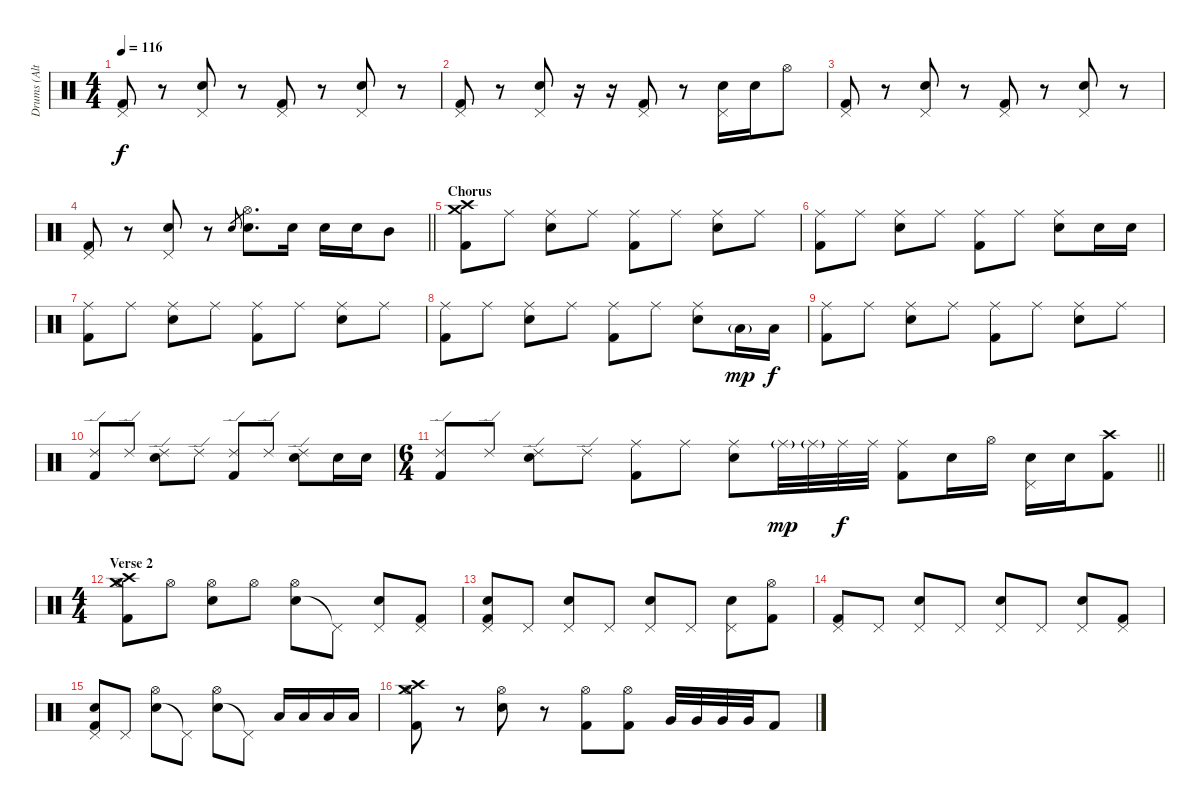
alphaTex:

\track ("Drums (Alternate - NOT ON MASTER)" "Drums (Alt") {mute instrument percussion}
\staff {score}
\articulation defaults
\ts (4 4)
\tempo 116
\clef neutral
\ks c
("Pedal Hi-Hat (hit)" "Kick (hit) 2").8{dy f} r.8 ("Snare (hit) 2" "Pedal Hi-Hat (hit)").8 r.8 ("Pedal Hi-Hat (hit)" "Kick (hit) 2").8 r.8 ("Snare (hit) 2" "Pedal Hi-Hat (hit)").8 r.8 |
("Pedal Hi-Hat (hit)" "Kick (hit) 2").8 r.8 ("Snare (hit) 2" "Pedal Hi-Hat (hit)").8 r.16 r.16 ("Pedal Hi-Hat (hit)" "Kick (hit) 2").8 r.8 ("Snare (hit) 2" "Pedal Hi-Hat (hit)").16 "Snare (hit) 2".16 "Hi-Hat (open)".8 |
("Pedal Hi-Hat (hit)" "Kick (hit) 2").8 r.8 ("Snare (hit) 2" "Pedal Hi-Hat (hit)").8 r.8 ("Pedal Hi-Hat (hit)" "Kick (hit) 2").8 r.8 ("Snare (hit) 2" "Pedal Hi-Hat (hit)").8 r.8 |
\barLineRight lightlight
("Pedal Hi-Hat (hit)" "Kick (hit) 2").8 r.8 ("Snare (hit) 2" "Pedal Hi-Hat (hit)").8 r.8 "Snare (hit) 2".8{gr} ("Snare (hit) 2" "Hi-Hat (open)").8{d} "Snare (hit) 2".16 "Snare (hit) 2".16 "Snare (hit) 2".16 "Mid Tom (hit)".8 |
\section ("" "Chorus")
("Crash medium (hit)" "Crash high (hit)" "Kick (hit) 2").8 "Ride (middle)".8 ("Ride (middle)" "Snare (hit) 2").8 "Ride (middle)".8 ("Ride (middle)" "Kick (hit) 2").8 "Ride (middle)".8 ("Ride (middle)" "Snare (hit) 2").8 "Ride (middle)".8 |
("Ride (middle)" "Kick (hit) 2").8 "Ride (middle)".8 ("Ride (middle)" "Snare (hit) 2").8 "Ride (middle)".8 ("Ride (middle)" "Kick (hit) 2").8 "Ride (middle)".8 ("Ride (middle)" "Snare (hit) 2").8 "Snare (hit) 2".16 "Snare (hit) 2".16 |
("Ride (middle)" "Kick (hit) 2").8 "Ride (middle)".8 ("Ride (middle)" "Snare (hit) 2").8 "Ride (middle)".8 ("Ride (middle)" "Kick (hit) 2").8 "Ride (middle)".8 ("Ride (middle)" "Snare (hit) 2").8 "Ride (middle)".8 |
("Ride (middle)" "Kick (hit) 2").8 "Ride (middle)".8 ("Ride (middle)" "Snare (hit) 2").8 "Ride (middle)".8 ("Ride (middle)" "Kick (hit) 2").8 "Ride (middle)".8 ("Ride (middle)" "Snare (hit) 2").8 "Low Floor Tom (hit)"{g}.16{dy mp} "Low Floor Tom (hit)".16{dy f} |
("Ride (middle)" "Kick (hit) 2").8 "Ride (middle)".8 ("Ride (middle)" "Snare (hit) 2").8 "Ride (middle)".8 ("Ride (middle)" "Kick (hit) 2").8 "Ride (middle)".8 ("Ride (middle)" "Snare (hit) 2").8 "Ride (middle)".8 |
("Ride (edge) 2" "Kick (hit) 2").8 "Ride (edge) 2".8 ("Ride (edge) 2" "Snare (hit) 2").8 "Ride (edge) 2".8 ("Ride (edge) 2" "Kick (hit) 2").8 "Ride (edge) 2".8 ("Ride (edge) 2" "Snare (hit) 2").8 "Snare (hit) 2".16 "Snare (hit) 2".16 |
\ts (6 4)
\barLineRight lightlight
("Ride (edge) 2" "Kick (hit) 2").8 "Ride (edge) 2".8 ("Ride (edge) 2" "Snare (hit) 2").8 "Ride (edge) 2".8 ("Ride (middle)" "Kick (hit) 2").8 "Ride (middle)".8 ("Ride (middle)" "Snare (hit) 2").8 "Ride (middle)"{g}.32{dy mp} "Ride (middle)"{g}.32 "Ride (middle)".32{dy f} "Ride (middle)".32 ("Ride (middle)" "Kick (hit) 2").8 "Snare (hit) 2".16 "Hi-Hat (open)".16 ("Pedal Hi-Hat (hit)" "Snare (hit) 2").16 "Snare (hit) 2".16 ("Crash high (hit)" "Kick (hit) 2").8 |
\ts (4 4)
\section ("" "Verse 2")
("Crash medium (hit)" "Crash high (hit)" "Hi-Hat (open)" "Kick (hit) 2").8 "Hi-Hat (open)".8 ("Snare (hit) 2" "Hi-Hat (open)").8 "Hi-Hat (open)".8 ("Snare (hit) 2" "Hi-Hat (open)").8 "Pedal Hi-Hat (hit)"{t}.8 ("Snare (hit) 2" "Pedal Hi-Hat (hit)").8 ("Pedal Hi-Hat (hit)" "Kick (hit) 2").8 |
("Snare (hit) 2" "Pedal Hi-Hat (hit)" "Kick (hit) 2").8 "Pedal Hi-Hat (hit)".8 ("Snare (hit) 2" "Pedal Hi-Hat (hit)").8 "Pedal Hi-Hat (hit)".8 ("Snare (hit) 2" "Pedal Hi-Hat (hit)").8 "Pedal Hi-Hat (hit)".8 ("Snare (hit) 2" "Pedal Hi-Hat (hit)").8 ("Hi-Hat (open)" "Kick (hit) 2").8 |
("Pedal Hi-Hat (hit)" "Kick (hit) 2").8 "Pedal Hi-Hat (hit)".8 ("Snare (hit) 2" "Pedal Hi-Hat (hit)").8 "Pedal Hi-Hat (hit)".8 ("Snare (hit) 2" "Pedal Hi-Hat (hit)").8 "Pedal Hi-Hat (hit)".8 ("Snare (hit) 2" "Pedal Hi-Hat (hit)").8 ("Pedal Hi-Hat (hit)" "Kick (hit) 2").8 |
("Snare (hit) 2" "Pedal Hi-Hat (hit)" "Kick (hit) 2").8 "Pedal Hi-Hat (hit)".8 ("Snare (hit) 2" "Hi-Hat (open)").8 "Pedal Hi-Hat (hit)"{t}.8 ("Snare (hit) 2" "Hi-Hat (open)").8 "Pedal Hi-Hat (hit)"{t}.8 "Low Tom (hit)".16 "Low Tom (hit)".16 "Low Tom (hit)".16 "Low Tom (hit)".16 |
("Crash medium (hit)" "Crash high (hit)" "Hi-Hat (open)" "Kick (hit) 2").8 r.8 ("Snare (hit) 2" "Hi-Hat (open)").8 r.8 ("Hi-Hat (open)" "Kick (hit) 2").8 ("Hi-Hat (open)" "Kick (hit) 2").8 "Very Low Tom (hit)".32 "Very Low Tom (hit)".32 "Very Low Tom (hit)".32 "Very Low Tom (hit)".32 "Kick (hit) 2".8
